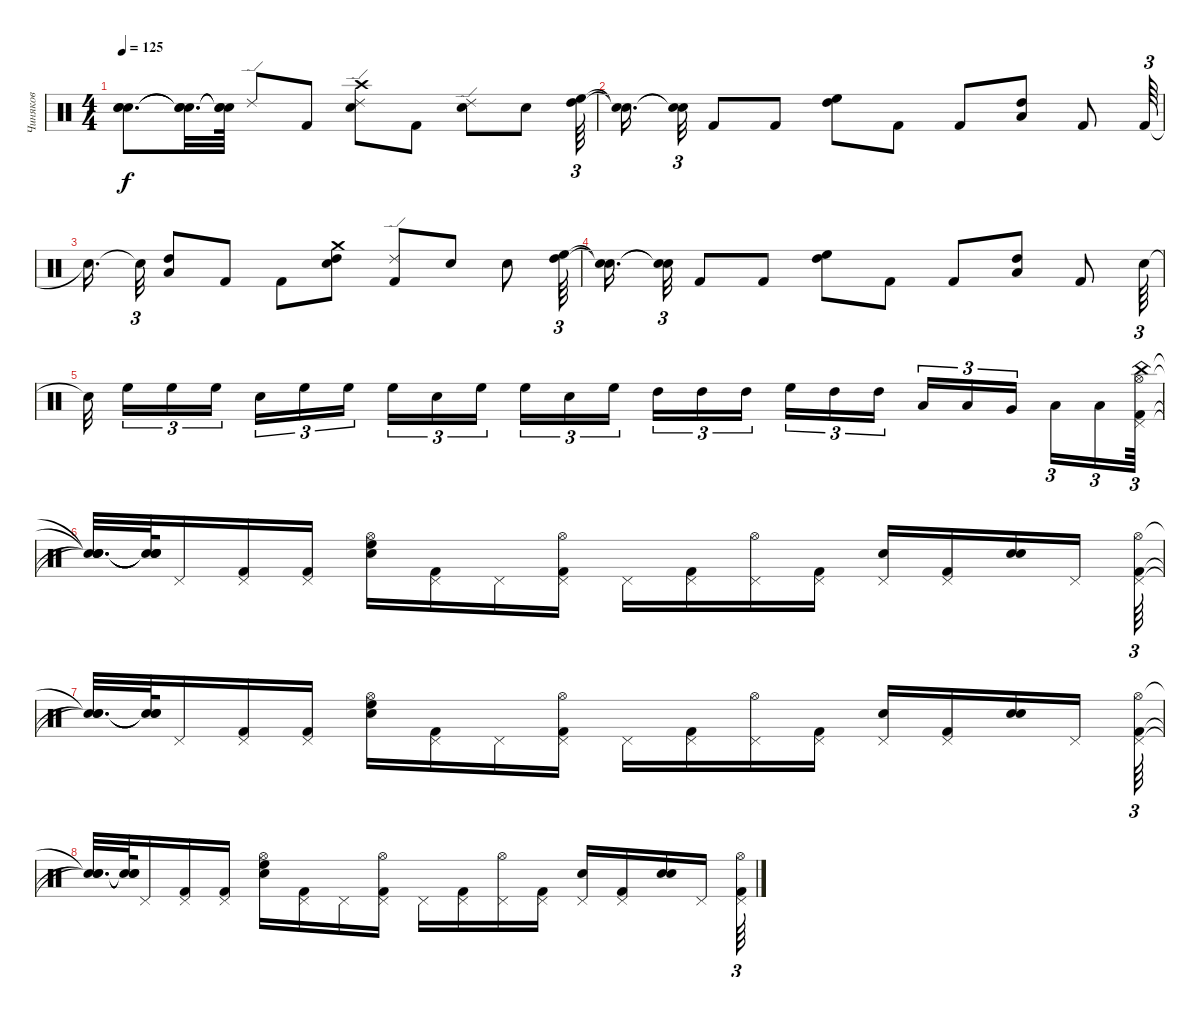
\track ("Чиняков" "Чиняков") {instrument percussion}
\staff {score}
\articulation defaults
\ts (4 4)
\tempo 125
\clef neutral
\ks c
("Snare (hit)"{t} "Snare (hit)"{t} "Snare (hit)"{t}).8{d dy f} ("Snare (hit)"{t} "Snare (hit)"{t} "Snare (hit)"{t}).32{d} ("Snare (hit)"{t} "Snare (hit)"{t} "Snare (hit)"{t}).64 "Ride (edge) 2".8 "Kick (hit) 2".8 ("Electric Snare (hit)" "Crash high (hit)" "Ride (edge) 2").8 "Kick (hit) 2".8 ("Electric Snare (hit)" "Ride (edge) 2").8 "Electric Snare (hit)".8 ("High Floor Tom (hit)" "High Tom (hit)").64{tu (3 2)} |
("Snare (hit)"{t} "Snare (hit)"{t}).16{d beam splitsecondary} ("Snare (hit)"{t} "Snare (hit)"{t}).32{tu (3 2)} "Kick (hit) 2".8 "Kick (hit) 2".8 ("High Floor Tom (hit)" "High Tom (hit)").8 "Kick (hit) 2".8 "Kick (hit) 2".8 ("High Tom (hit)" "Low Tom (hit)").8 "Kick (hit) 2".8 "Kick (hit) 2".64{tu (3 2)} |
"Snare (hit)"{t}.16{d beam splitsecondary} "Snare (hit)"{t}.32{tu (3 2)} ("High Tom (hit)" "Low Floor Tom (hit)").8 "Kick (hit) 2".8 "Kick (hit) 2".8 ("Electric Snare (hit)" "Crash medium (hit)" "High Tom (hit)").8 ("Kick (hit) 2" "Ride (edge) 2").8 "Electric Snare (hit)".8 "Electric Snare (hit)".8 ("High Floor Tom (hit)" "High Tom (hit)").64{tu (3 2)} |
("Snare (hit)"{t} "Snare (hit)"{t}).16{d beam splitsecondary} ("Snare (hit)"{t} "Snare (hit)"{t}).32{tu (3 2)} "Kick (hit) 2".8 "Kick (hit) 2".8 ("High Floor Tom (hit)" "High Tom (hit)").8 "Kick (hit) 2".8 "Kick (hit) 2".8 ("High Tom (hit)" "Low Tom (hit)").8 "Kick (hit) 2".8 "Electric Snare (hit)".64{tu (3 2)} |
"Snare (hit)"{t}.32{beam splitsecondary} "High Floor Tom (hit)".16{tu (3 2)} "High Floor Tom (hit)".16{tu (3 2)} "High Floor Tom (hit)".16{tu (3 2) beam splitsecondary} "Electric Snare (hit)".16{tu (3 2)} "High Floor Tom (hit)".16{tu (3 2)} "High Floor Tom (hit)".16{tu (3 2)} "High Floor Tom (hit)".16{tu (3 2)} "Electric Snare (hit)".16{tu (3 2)} "High Floor Tom (hit)".16{tu (3 2) beam splitsecondary} "High Floor Tom (hit)".16{tu (3 2)} "Electric Snare (hit)".16{tu (3 2)} "High Floor Tom (hit)".16{tu (3 2)} "High Tom (hit)".16{tu (3 2)} "High Tom (hit)".16{tu (3 2)} "High Tom (hit)".16{tu (3 2) beam splitsecondary} "High Floor Tom (hit)".16{tu (3 2)} "High Tom (hit)".16{tu (3 2)} "High Tom (hit)".16{tu (3 2)} "Low Tom (hit)".16{tu (3 2)} "Low Tom (hit)".16{tu (3 2)} "Very Low Tom (hit)".16{tu (3 2) beam splitsecondary} "Low Floor Tom (hit)".16{tu (3 2)} "Low Floor Tom (hit)".16{tu (3 2)} ("Pedal Hi-Hat (hit)" "Kick (hit) 2" "Hi-Hat (open)" "China (hit)").64{tu (3 2)} |
("Snare (hit)"{t} "Snare (hit)"{t} "Snare (hit)"{t} "Snare (hit)"{t}).32{d} ("Snare (hit)"{t} "Snare (hit)"{t} "Snare (hit)"{t} "Snare (hit)"{t}).64 "Pedal Hi-Hat (hit)".16 ("Pedal Hi-Hat (hit)" "Kick (hit) 2").16 ("Pedal Hi-Hat (hit)" "Kick (hit) 2").16 ("Electric Snare (hit)" "High Floor Tom (hit)" "Hi-Hat (open)").16 ("Pedal Hi-Hat (hit)" "Kick (hit) 2").16 "Pedal Hi-Hat (hit)".16 ("Pedal Hi-Hat (hit)" "Kick (hit) 2" "Hi-Hat (open)").16 "Pedal Hi-Hat (hit)".16 ("Pedal Hi-Hat (hit)" "Kick (hit) 2").16 ("Pedal Hi-Hat (hit)" "Hi-Hat (open)").16 ("Pedal Hi-Hat (hit)" "Kick (hit) 2").16 ("Pedal Hi-Hat (hit)" "Electric Snare (hit)").16 ("Pedal Hi-Hat (hit)" "Kick (hit) 2").16 ("Electric Snare (hit)" "Electric Snare (hit)").16 "Pedal Hi-Hat (hit)".16 ("Pedal Hi-Hat (hit)" "Kick (hit) 2" "Hi-Hat (open)").64{tu (3 2)} |
("Snare (hit)"{t} "Snare (hit)"{t} "Snare (hit)"{t}).32{d} ("Snare (hit)"{t} "Snare (hit)"{t} "Snare (hit)"{t}).64 "Pedal Hi-Hat (hit)".16 ("Pedal Hi-Hat (hit)" "Kick (hit) 2").16 ("Pedal Hi-Hat (hit)" "Kick (hit) 2").16 ("Electric Snare (hit)" "High Floor Tom (hit)" "Hi-Hat (open)").16 ("Pedal Hi-Hat (hit)" "Kick (hit) 2").16 "Pedal Hi-Hat (hit)".16 ("Pedal Hi-Hat (hit)" "Kick (hit) 2" "Hi-Hat (open)").16 "Pedal Hi-Hat (hit)".16 ("Pedal Hi-Hat (hit)" "Kick (hit) 2").16 ("Pedal Hi-Hat (hit)" "Hi-Hat (open)").16 ("Pedal Hi-Hat (hit)" "Kick (hit) 2").16 ("Pedal Hi-Hat (hit)" "Electric Snare (hit)").16 ("Pedal Hi-Hat (hit)" "Kick (hit) 2").16 ("Electric Snare (hit)" "Electric Snare (hit)").16 "Pedal Hi-Hat (hit)".16 ("Pedal Hi-Hat (hit)" "Kick (hit) 2" "Hi-Hat (open)").64{tu (3 2)} |
("Snare (hit)"{t} "Snare (hit)"{t} "Snare (hit)"{t}).32{d} ("Snare (hit)"{t} "Snare (hit)"{t} "Snare (hit)"{t}).64 "Pedal Hi-Hat (hit)".16 ("Pedal Hi-Hat (hit)" "Kick (hit) 2").16 ("Pedal Hi-Hat (hit)" "Kick (hit) 2").16 ("Electric Snare (hit)" "High Floor Tom (hit)" "Hi-Hat (open)").16 ("Pedal Hi-Hat (hit)" "Kick (hit) 2").16 "Pedal Hi-Hat (hit)".16 ("Pedal Hi-Hat (hit)" "Kick (hit) 2" "Hi-Hat (open)").16 "Pedal Hi-Hat (hit)".16 ("Pedal Hi-Hat (hit)" "Kick (hit) 2").16 ("Pedal Hi-Hat (hit)" "Hi-Hat (open)").16 ("Pedal Hi-Hat (hit)" "Kick (hit) 2").16 ("Pedal Hi-Hat (hit)" "Electric Snare (hit)").16 ("Pedal Hi-Hat (hit)" "Kick (hit) 2").16 ("Electric Snare (hit)" "Electric Snare (hit)").16 "Pedal Hi-Hat (hit)".16 ("Pedal Hi-Hat (hit)" "Kick (hit) 2" "Hi-Hat (open)").64{tu (3 2)}
